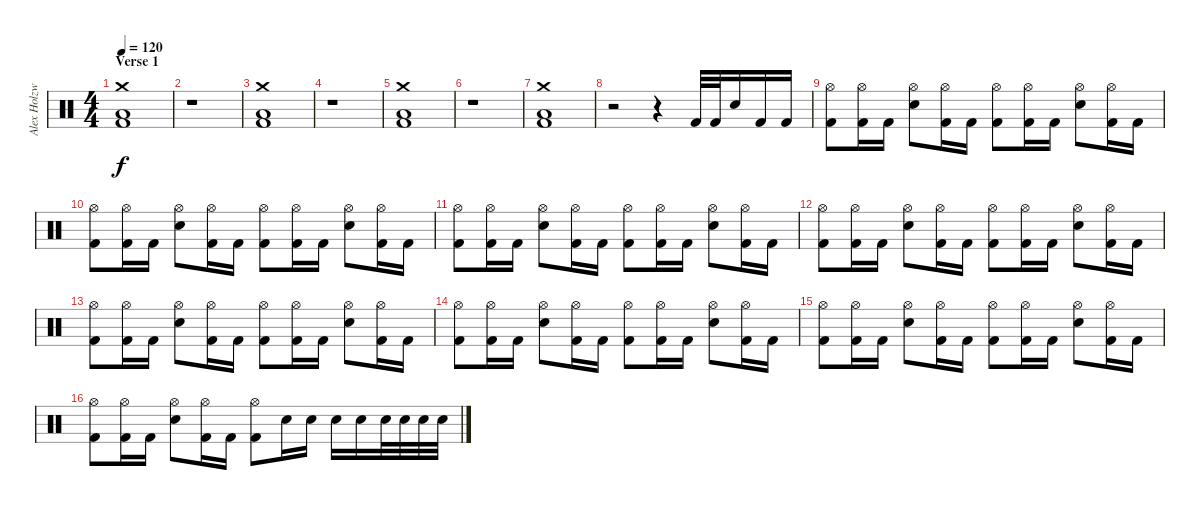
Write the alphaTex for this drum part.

\track ("Alex Holzwarth - Drums" "Alex Holzw") {instrument percussion}
\staff {score}
\articulation defaults
\ts (4 4)
\section ("" "Verse 1")
\tempo 120
\clef neutral
\ks c
("Crash medium (hit)" "Low Floor Tom (hit)" "Kick (hit) 2").1{dy f} |
r.1 |
("Crash medium (hit)" "Low Floor Tom (hit)" "Kick (hit) 2").1 |
r.1 |
("Crash medium (hit)" "Low Floor Tom (hit)" "Kick (hit) 2").1 |
r.1 |
("Crash medium (hit)" "Low Floor Tom (hit)" "Kick (hit) 2").1 |
r.2 r.4 "Kick (hit) 2".32 "Kick (hit) 2".32 "Electric Snare (hit)".16 "Kick (hit) 2".16 "Kick (hit) 2".16 |
("Hi-Hat (open)" "Kick (hit) 2").8 ("Hi-Hat (open)" "Kick (hit) 2").16 "Kick (hit) 2".16 ("Hi-Hat (open)" "Electric Snare (hit)").8 ("Hi-Hat (open)" "Kick (hit) 2").16 "Kick (hit) 2".16 ("Hi-Hat (open)" "Kick (hit) 2").8 ("Hi-Hat (open)" "Kick (hit) 2").16 "Kick (hit) 2".16 ("Hi-Hat (open)" "Electric Snare (hit)").8 ("Hi-Hat (open)" "Kick (hit) 2").16 "Kick (hit) 2".16 |
("Hi-Hat (open)" "Kick (hit) 2").8 ("Hi-Hat (open)" "Kick (hit) 2").16 "Kick (hit) 2".16 ("Hi-Hat (open)" "Electric Snare (hit)").8 ("Hi-Hat (open)" "Kick (hit) 2").16 "Kick (hit) 2".16 ("Hi-Hat (open)" "Kick (hit) 2").8 ("Hi-Hat (open)" "Kick (hit) 2").16 "Kick (hit) 2".16 ("Hi-Hat (open)" "Electric Snare (hit)").8 ("Hi-Hat (open)" "Kick (hit) 2").16 "Kick (hit) 2".16 |
("Hi-Hat (open)" "Kick (hit) 2").8 ("Hi-Hat (open)" "Kick (hit) 2").16 "Kick (hit) 2".16 ("Hi-Hat (open)" "Electric Snare (hit)").8 ("Hi-Hat (open)" "Kick (hit) 2").16 "Kick (hit) 2".16 ("Hi-Hat (open)" "Kick (hit) 2").8 ("Hi-Hat (open)" "Kick (hit) 2").16 "Kick (hit) 2".16 ("Hi-Hat (open)" "Electric Snare (hit)").8 ("Hi-Hat (open)" "Kick (hit) 2").16 "Kick (hit) 2".16 |
("Hi-Hat (open)" "Kick (hit) 2").8 ("Hi-Hat (open)" "Kick (hit) 2").16 "Kick (hit) 2".16 ("Hi-Hat (open)" "Electric Snare (hit)").8 ("Hi-Hat (open)" "Kick (hit) 2").16 "Kick (hit) 2".16 ("Hi-Hat (open)" "Kick (hit) 2").8 ("Hi-Hat (open)" "Kick (hit) 2").16 "Kick (hit) 2".16 ("Hi-Hat (open)" "Electric Snare (hit)").8 ("Hi-Hat (open)" "Kick (hit) 2").16 "Kick (hit) 2".16 |
("Hi-Hat (open)" "Kick (hit) 2").8 ("Hi-Hat (open)" "Kick (hit) 2").16 "Kick (hit) 2".16 ("Hi-Hat (open)" "Electric Snare (hit)").8 ("Hi-Hat (open)" "Kick (hit) 2").16 "Kick (hit) 2".16 ("Hi-Hat (open)" "Kick (hit) 2").8 ("Hi-Hat (open)" "Kick (hit) 2").16 "Kick (hit) 2".16 ("Hi-Hat (open)" "Electric Snare (hit)").8 ("Hi-Hat (open)" "Kick (hit) 2").16 "Kick (hit) 2".16 |
("Hi-Hat (open)" "Kick (hit) 2").8 ("Hi-Hat (open)" "Kick (hit) 2").16 "Kick (hit) 2".16 ("Hi-Hat (open)" "Electric Snare (hit)").8 ("Hi-Hat (open)" "Kick (hit) 2").16 "Kick (hit) 2".16 ("Hi-Hat (open)" "Kick (hit) 2").8 ("Hi-Hat (open)" "Kick (hit) 2").16 "Kick (hit) 2".16 ("Hi-Hat (open)" "Electric Snare (hit)").8 ("Hi-Hat (open)" "Kick (hit) 2").16 "Kick (hit) 2".16 |
("Hi-Hat (open)" "Kick (hit) 2").8 ("Hi-Hat (open)" "Kick (hit) 2").16 "Kick (hit) 2".16 ("Hi-Hat (open)" "Electric Snare (hit)").8 ("Hi-Hat (open)" "Kick (hit) 2").16 "Kick (hit) 2".16 ("Hi-Hat (open)" "Kick (hit) 2").8 ("Hi-Hat (open)" "Kick (hit) 2").16 "Kick (hit) 2".16 ("Hi-Hat (open)" "Electric Snare (hit)").8 ("Hi-Hat (open)" "Kick (hit) 2").16 "Kick (hit) 2".16 |
("Hi-Hat (open)" "Kick (hit) 2").8 ("Hi-Hat (open)" "Kick (hit) 2").16 "Kick (hit) 2".16 ("Hi-Hat (open)" "Electric Snare (hit)").8 ("Hi-Hat (open)" "Kick (hit) 2").16 "Kick (hit) 2".16 ("Hi-Hat (open)" "Kick (hit) 2").8 "Electric Snare (hit)".16 "Electric Snare (hit)".16 "Electric Snare (hit)".16 "Electric Snare (hit)".16 "Electric Snare (hit)".32 "Electric Snare (hit)".32 "Electric Snare (hit)".32 "Electric Snare (hit)".32
